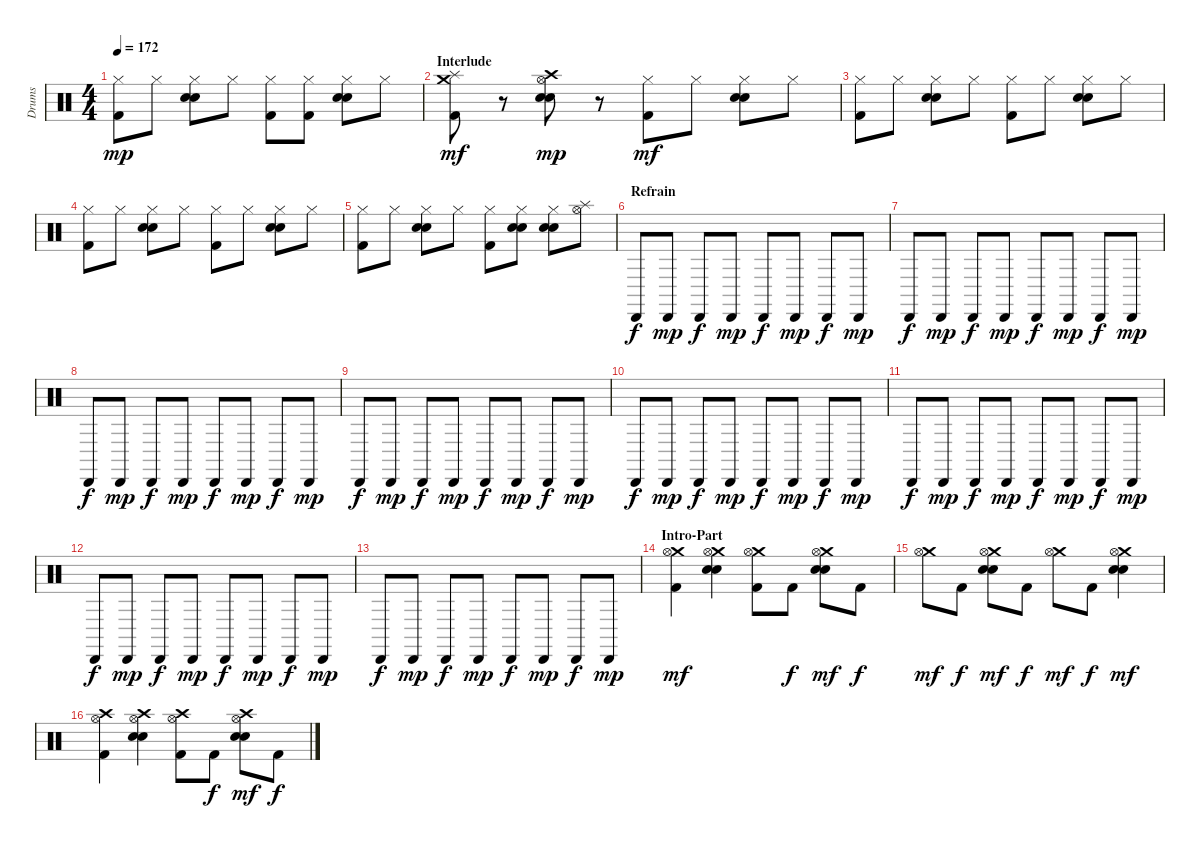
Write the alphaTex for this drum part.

\track ("Drums" "Drums") {instrument percussion}
\staff {score}
\articulation defaults
\ts (4 4)
\tempo 172
\clef neutral
\ks c
("Hi-Hat (closed)" "Kick (hit) 2").8{dy mp} "Hi-Hat (closed)".8 ("Hi-Hat (closed)" "Snare (hit) 2" "Electric Snare (hit)").8 "Hi-Hat (closed)".8 ("Hi-Hat (closed)" "Kick (hit) 2").8 ("Hi-Hat (closed)" "Kick (hit) 2").8 ("Hi-Hat (closed)" "Snare (hit) 2" "Electric Snare (hit)").8 "Hi-Hat (closed)".8 |
\section ("" "Interlude")
("Crash medium (hit)" "Splash (hit)" "Kick (hit) 2").8{dy mf} r.8 ("Crash high (hit)" "Hi-Hat (open)" "Electric Snare (hit)" "Snare (hit) 2").8{dy mp} r.8 ("Hi-Hat (closed)" "Kick (hit) 2").8{dy mf} "Hi-Hat (closed)".8 ("Hi-Hat (closed)" "Electric Snare (hit)" "Snare (hit) 2").8 "Hi-Hat (closed)".8 |
("Hi-Hat (closed)" "Kick (hit) 2").8 "Hi-Hat (closed)".8 ("Hi-Hat (closed)" "Electric Snare (hit)" "Snare (hit) 2").8 "Hi-Hat (closed)".8 ("Hi-Hat (closed)" "Kick (hit) 2").8 "Hi-Hat (closed)".8 ("Hi-Hat (closed)" "Electric Snare (hit)" "Snare (hit) 2").8 "Hi-Hat (closed)".8 |
("Hi-Hat (closed)" "Kick (hit) 2").8 "Hi-Hat (closed)".8 ("Hi-Hat (closed)" "Electric Snare (hit)" "Snare (hit) 2").8 "Hi-Hat (closed)".8 ("Hi-Hat (closed)" "Kick (hit) 2").8 "Hi-Hat (closed)".8 ("Hi-Hat (closed)" "Electric Snare (hit)" "Snare (hit) 2").8 "Hi-Hat (closed)".8 |
("Hi-Hat (closed)" "Kick (hit) 2").8 "Hi-Hat (closed)".8 ("Hi-Hat (closed)" "Electric Snare (hit)" "Snare (hit) 2").8 "Hi-Hat (closed)".8 ("Hi-Hat (closed)" "Kick (hit) 2").8 ("Hi-Hat (closed)" "Electric Snare (hit)" "Snare (hit) 2").8 ("Hi-Hat (closed)" "Electric Snare (hit)" "Snare (hit) 2").8 ("Hi-Hat (open)" "Splash (hit)").8 |
\section ("" "Refrain")
"Cabasa (hit)".8{dy f volume 6} "Cabasa (hit)".8{dy mp} "Cabasa (hit)".8{dy f} "Cabasa (hit)".8{dy mp} "Cabasa (hit)".8{dy f} "Cabasa (hit)".8{dy mp} "Cabasa (hit)".8{dy f} "Cabasa (hit)".8{dy mp} |
"Cabasa (hit)".8{dy f} "Cabasa (hit)".8{dy mp} "Cabasa (hit)".8{dy f} "Cabasa (hit)".8{dy mp} "Cabasa (hit)".8{dy f} "Cabasa (hit)".8{dy mp} "Cabasa (hit)".8{dy f} "Cabasa (hit)".8{dy mp} |
"Cabasa (hit)".8{dy f} "Cabasa (hit)".8{dy mp} "Cabasa (hit)".8{dy f} "Cabasa (hit)".8{dy mp} "Cabasa (hit)".8{dy f} "Cabasa (hit)".8{dy mp} "Cabasa (hit)".8{dy f} "Cabasa (hit)".8{dy mp} |
"Cabasa (hit)".8{dy f} "Cabasa (hit)".8{dy mp} "Cabasa (hit)".8{dy f} "Cabasa (hit)".8{dy mp} "Cabasa (hit)".8{dy f} "Cabasa (hit)".8{dy mp} "Cabasa (hit)".8{dy f} "Cabasa (hit)".8{dy mp} |
"Cabasa (hit)".8{dy f} "Cabasa (hit)".8{dy mp} "Cabasa (hit)".8{dy f} "Cabasa (hit)".8{dy mp} "Cabasa (hit)".8{dy f} "Cabasa (hit)".8{dy mp} "Cabasa (hit)".8{dy f} "Cabasa (hit)".8{dy mp} |
"Cabasa (hit)".8{dy f} "Cabasa (hit)".8{dy mp} "Cabasa (hit)".8{dy f} "Cabasa (hit)".8{dy mp} "Cabasa (hit)".8{dy f} "Cabasa (hit)".8{dy mp} "Cabasa (hit)".8{dy f} "Cabasa (hit)".8{dy mp} |
"Cabasa (hit)".8{dy f} "Cabasa (hit)".8{dy mp} "Cabasa (hit)".8{dy f} "Cabasa (hit)".8{dy mp} "Cabasa (hit)".8{dy f} "Cabasa (hit)".8{dy mp} "Cabasa (hit)".8{dy f} "Cabasa (hit)".8{dy mp} |
"Cabasa (hit)".8{dy f} "Cabasa (hit)".8{dy mp} "Cabasa (hit)".8{dy f} "Cabasa (hit)".8{dy mp} "Cabasa (hit)".8{dy f} "Cabasa (hit)".8{dy mp} "Cabasa (hit)".8{dy f} "Cabasa (hit)".8{dy mp} |
\section ("" "Intro-Part")
("Crash medium (hit)" "Hi-Hat (open)" "Kick (hit) 2").4{dy mf volume 12} ("Crash medium (hit)" "Hi-Hat (open)" "Electric Snare (hit)" "Snare (hit) 2").4 ("Crash medium (hit)" "Hi-Hat (open)" "Kick (hit) 2").8 "Kick (hit) 2".8{dy f} ("Crash medium (hit)" "Hi-Hat (open)" "Electric Snare (hit)" "Snare (hit) 2").8{dy mf} "Kick (hit) 2".8{dy f} |
("Crash medium (hit)" "Hi-Hat (open)").8{dy mf} "Kick (hit) 2".8{dy f} ("Crash medium (hit)" "Hi-Hat (open)" "Electric Snare (hit)" "Snare (hit) 2").8{dy mf} "Kick (hit) 2".8{dy f} ("Crash medium (hit)" "Hi-Hat (open)").8{dy mf} "Kick (hit) 2".8{dy f} ("Crash medium (hit)" "Hi-Hat (open)" "Electric Snare (hit)" "Snare (hit) 2").4{dy mf} |
("Crash high (hit)" "Hi-Hat (open)" "Kick (hit) 2").4 ("Crash high (hit)" "Hi-Hat (open)" "Electric Snare (hit)" "Snare (hit) 2").4 ("Crash high (hit)" "Hi-Hat (open)" "Kick (hit) 2").8 "Kick (hit) 2".8{dy f} ("Crash high (hit)" "Hi-Hat (open)" "Electric Snare (hit)" "Snare (hit) 2").8{dy mf} "Kick (hit) 2".8{dy f}
